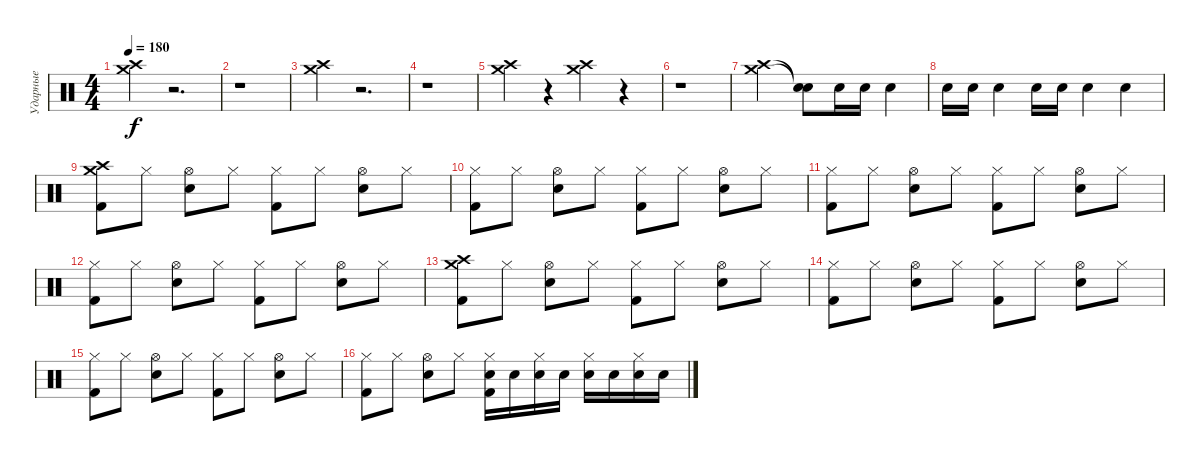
\track ("Ударные" "Ударные") {instrument percussion}
\staff {score}
\articulation defaults
\ts (4 4)
\tempo 180
\clef neutral
\ks c
("Crash high (hit)" "Crash medium (hit)").4{dy f} r.2{d} |
r.1 |
("Crash high (hit)" "Crash medium (hit)").4 r.2{d} |
r.1 |
("Crash high (hit)" "Crash medium (hit)").4 r.4 ("Crash high (hit)" "Crash medium (hit)").4 r.4 |
r.1 |
("Crash high (hit)" "Crash medium (hit)").2 ("Snare (hit)"{t} "Snare (hit)"{t}).8 "Snare (hit) 2".16 "Snare (hit) 2".16 "Snare (hit) 2".4 |
"Snare (hit) 2".16 "Snare (hit) 2".16 "Snare (hit) 2".4 "Snare (hit) 2".16 "Snare (hit) 2".16 "Snare (hit) 2".4 "Snare (hit) 2".4 |
("Crash high (hit)" "Crash medium (hit)" "Kick (hit) 2").8 "Hi-Hat (closed)".8 ("Hi-Hat (open)" "Snare (hit) 2").8 "Hi-Hat (closed)".8 ("Hi-Hat (closed)" "Kick (hit) 2").8 "Hi-Hat (closed)".8 ("Hi-Hat (open)" "Snare (hit) 2").8 "Hi-Hat (closed)".8 |
("Hi-Hat (closed)" "Kick (hit) 2").8 "Hi-Hat (closed)".8 ("Hi-Hat (open)" "Snare (hit) 2").8 "Hi-Hat (closed)".8 ("Hi-Hat (closed)" "Kick (hit) 2").8 "Hi-Hat (closed)".8 ("Hi-Hat (open)" "Snare (hit) 2").8 "Hi-Hat (closed)".8 |
("Hi-Hat (closed)" "Kick (hit) 2").8 "Hi-Hat (closed)".8 ("Hi-Hat (open)" "Snare (hit) 2").8 "Hi-Hat (closed)".8 ("Hi-Hat (closed)" "Kick (hit) 2").8 "Hi-Hat (closed)".8 ("Hi-Hat (open)" "Snare (hit) 2").8 "Hi-Hat (closed)".8 |
("Hi-Hat (closed)" "Kick (hit) 2").8 "Hi-Hat (closed)".8 ("Hi-Hat (open)" "Snare (hit) 2").8 "Hi-Hat (closed)".8 ("Hi-Hat (closed)" "Kick (hit) 2").8 "Hi-Hat (closed)".8 ("Hi-Hat (open)" "Snare (hit) 2").8 "Hi-Hat (closed)".8 |
("Crash high (hit)" "Crash medium (hit)" "Kick (hit) 2").8 "Hi-Hat (closed)".8 ("Hi-Hat (open)" "Snare (hit) 2").8 "Hi-Hat (closed)".8 ("Hi-Hat (closed)" "Kick (hit) 2").8 "Hi-Hat (closed)".8 ("Hi-Hat (open)" "Snare (hit) 2").8 "Hi-Hat (closed)".8 |
("Hi-Hat (closed)" "Kick (hit) 2").8 "Hi-Hat (closed)".8 ("Hi-Hat (open)" "Snare (hit) 2").8 "Hi-Hat (closed)".8 ("Hi-Hat (closed)" "Kick (hit) 2").8 "Hi-Hat (closed)".8 ("Hi-Hat (open)" "Snare (hit) 2").8 "Hi-Hat (closed)".8 |
("Hi-Hat (closed)" "Kick (hit) 2").8 "Hi-Hat (closed)".8 ("Hi-Hat (open)" "Snare (hit) 2").8 "Hi-Hat (closed)".8 ("Hi-Hat (closed)" "Kick (hit) 2").8 "Hi-Hat (closed)".8 ("Hi-Hat (open)" "Snare (hit) 2").8 "Hi-Hat (closed)".8 |
("Hi-Hat (closed)" "Kick (hit) 2").8 "Hi-Hat (closed)".8 ("Hi-Hat (open)" "Snare (hit) 2").8 "Hi-Hat (closed)".8 ("Hi-Hat (closed)" "Snare (hit) 2" "Kick (hit) 2").16 "Snare (hit) 2".16 ("Hi-Hat (closed)" "Snare (hit) 2").16 "Snare (hit) 2".16 ("Hi-Hat (closed)" "Snare (hit) 2").16 "Snare (hit) 2".16 ("Hi-Hat (closed)" "Snare (hit) 2").16 "Snare (hit) 2".16
